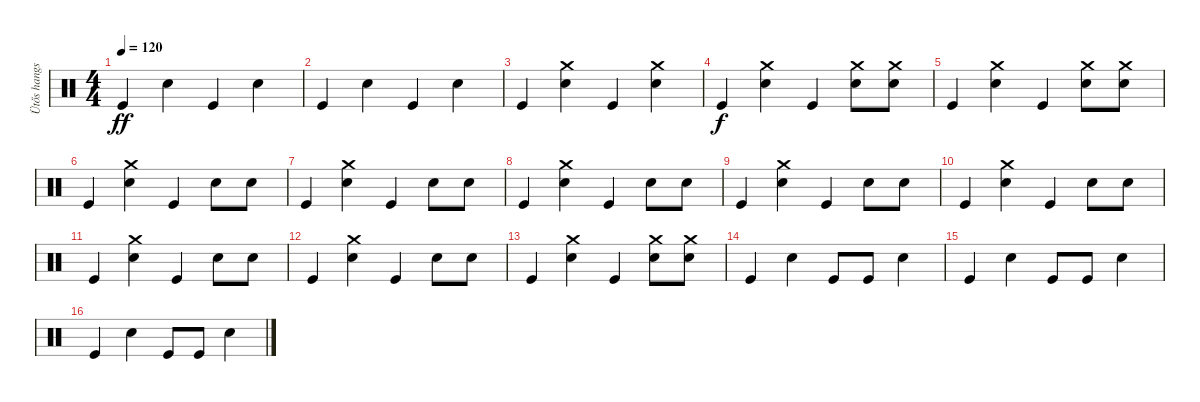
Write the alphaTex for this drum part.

\track ("Ütős hangszer" "Ütős hangs") {instrument percussion}
\staff {score}
\articulation defaults
\ts (4 4)
\tempo 120
\clef neutral
\ks c "Kick (hit)".4{dy ff} "Snare (hit) 2".4 "Kick (hit)".4 "Snare (hit) 2".4
|
"Kick (hit)".4 "Snare (hit) 2".4 "Kick (hit)".4 "Snare (hit) 2".4 |
"Kick (hit)".4 ("Crash medium (hit)" "Snare (hit) 2").4 "Kick (hit)".4 ("Crash medium (hit)" "Snare (hit) 2").4 |
"Kick (hit)".4{dy f} ("Crash medium (hit)" "Snare (hit) 2").4 "Kick (hit)".4 ("Crash medium (hit)" "Snare (hit) 2").8 ("Crash medium (hit)" "Snare (hit) 2").8 |
"Kick (hit)".4 ("Crash medium (hit)" "Snare (hit) 2").4 "Kick (hit)".4 ("Crash medium (hit)" "Snare (hit) 2").8 ("Crash medium (hit)" "Snare (hit) 2").8 |
"Kick (hit)".4 ("Crash medium (hit)" "Snare (hit) 2").4 "Kick (hit)".4 "Snare (hit) 2".8 "Snare (hit) 2".8 |
"Kick (hit)".4 ("Crash medium (hit)" "Snare (hit) 2").4 "Kick (hit)".4 "Snare (hit) 2".8 "Snare (hit) 2".8 |
"Kick (hit)".4 ("Crash medium (hit)" "Snare (hit) 2").4 "Kick (hit)".4 "Snare (hit) 2".8 "Snare (hit) 2".8 |
"Kick (hit)".4 ("Crash medium (hit)" "Snare (hit) 2").4 "Kick (hit)".4 "Snare (hit) 2".8 "Snare (hit) 2".8 |
"Kick (hit)".4 ("Crash medium (hit)" "Snare (hit) 2").4 "Kick (hit)".4 "Snare (hit) 2".8 "Snare (hit) 2".8 |
"Kick (hit)".4 ("Crash medium (hit)" "Snare (hit) 2").4 "Kick (hit)".4 "Snare (hit) 2".8 "Snare (hit) 2".8 |
"Kick (hit)".4 ("Crash medium (hit)" "Snare (hit) 2").4 "Kick (hit)".4 "Snare (hit) 2".8 "Snare (hit) 2".8 |
"Kick (hit)".4 ("Crash medium (hit)" "Snare (hit) 2").4 "Kick (hit)".4 ("Crash medium (hit)" "Snare (hit) 2").8 ("Crash medium (hit)" "Snare (hit) 2").8 |
"Kick (hit)".4 "Snare (hit) 2".4 "Kick (hit)".8 "Kick (hit)".8 "Snare (hit) 2".4 |
"Kick (hit)".4 "Snare (hit) 2".4 "Kick (hit)".8 "Kick (hit)".8 "Snare (hit) 2".4 |
"Kick (hit)".4 "Snare (hit) 2".4 "Kick (hit)".8 "Kick (hit)".8 "Snare (hit) 2".4
